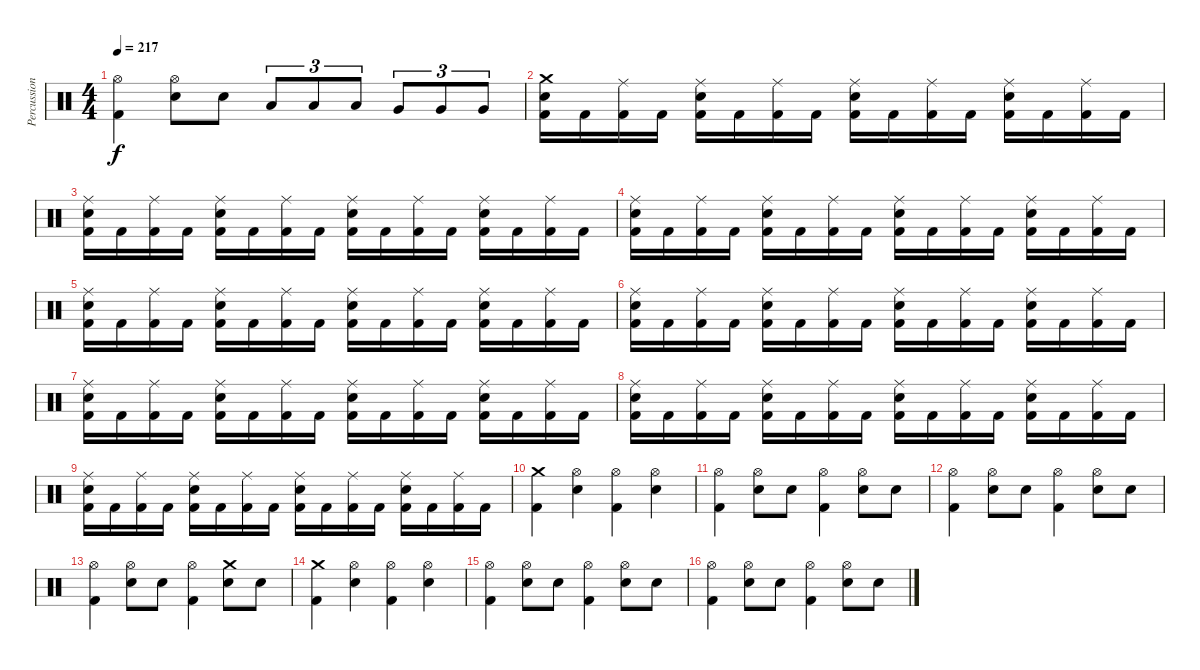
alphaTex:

\track ("Percussions" "Percussion") {instrument percussion}
\staff {score}
\articulation defaults
\ts (4 4)
\tempo 217
\clef neutral
\ks c
("Hi-Hat (open)" "Kick (hit) 2").4{dy f} ("Hi-Hat (open)" "Electric Snare (hit)").8 "Electric Snare (hit)".8 "Low Tom (hit)".8{tu (3 2)} "Low Tom (hit)".8{tu (3 2)} "Low Tom (hit)".8{tu (3 2)} "Very Low Tom (hit)".8{tu (3 2)} "Very Low Tom (hit)".8{tu (3 2)} "Very Low Tom (hit)".8{tu (3 2)} |
("Crash medium (hit)" "Electric Snare (hit)" "Kick (hit) 2").16 "Kick (hit) 2".16 ("Ride (middle)" "Kick (hit) 2").16 "Kick (hit) 2".16 ("Ride (middle)" "Electric Snare (hit)" "Kick (hit) 2").16 "Kick (hit) 2".16 ("Ride (middle)" "Kick (hit) 2").16 "Kick (hit) 2".16 ("Ride (middle)" "Electric Snare (hit)" "Kick (hit) 2").16 "Kick (hit) 2".16 ("Ride (middle)" "Kick (hit) 2").16 "Kick (hit) 2".16 ("Ride (middle)" "Electric Snare (hit)" "Kick (hit) 2").16 "Kick (hit) 2".16 ("Ride (middle)" "Kick (hit) 2").16 "Kick (hit) 2".16 |
("Ride (middle)" "Electric Snare (hit)" "Kick (hit) 2").16 "Kick (hit) 2".16 ("Ride (middle)" "Kick (hit) 2").16 "Kick (hit) 2".16 ("Ride (middle)" "Electric Snare (hit)" "Kick (hit) 2").16 "Kick (hit) 2".16 ("Ride (middle)" "Kick (hit) 2").16 "Kick (hit) 2".16 ("Ride (middle)" "Electric Snare (hit)" "Kick (hit) 2").16 "Kick (hit) 2".16 ("Ride (middle)" "Kick (hit) 2").16 "Kick (hit) 2".16 ("Ride (middle)" "Electric Snare (hit)" "Kick (hit) 2").16 "Kick (hit) 2".16 ("Ride (middle)" "Kick (hit) 2").16 "Kick (hit) 2".16 |
("Ride (middle)" "Electric Snare (hit)" "Kick (hit) 2").16 "Kick (hit) 2".16 ("Ride (middle)" "Kick (hit) 2").16 "Kick (hit) 2".16 ("Ride (middle)" "Electric Snare (hit)" "Kick (hit) 2").16 "Kick (hit) 2".16 ("Ride (middle)" "Kick (hit) 2").16 "Kick (hit) 2".16 ("Ride (middle)" "Electric Snare (hit)" "Kick (hit) 2").16 "Kick (hit) 2".16 ("Ride (middle)" "Kick (hit) 2").16 "Kick (hit) 2".16 ("Ride (middle)" "Electric Snare (hit)" "Kick (hit) 2").16 "Kick (hit) 2".16 ("Ride (middle)" "Kick (hit) 2").16 "Kick (hit) 2".16 |
("Ride (middle)" "Electric Snare (hit)" "Kick (hit) 2").16 "Kick (hit) 2".16 ("Ride (middle)" "Kick (hit) 2").16 "Kick (hit) 2".16 ("Ride (middle)" "Electric Snare (hit)" "Kick (hit) 2").16 "Kick (hit) 2".16 ("Ride (middle)" "Kick (hit) 2").16 "Kick (hit) 2".16 ("Ride (middle)" "Electric Snare (hit)" "Kick (hit) 2").16 "Kick (hit) 2".16 ("Ride (middle)" "Kick (hit) 2").16 "Kick (hit) 2".16 ("Ride (middle)" "Electric Snare (hit)" "Kick (hit) 2").16 "Kick (hit) 2".16 ("Ride (middle)" "Kick (hit) 2").16 "Kick (hit) 2".16 |
("Ride (middle)" "Electric Snare (hit)" "Kick (hit) 2").16 "Kick (hit) 2".16 ("Ride (middle)" "Kick (hit) 2").16 "Kick (hit) 2".16 ("Ride (middle)" "Electric Snare (hit)" "Kick (hit) 2").16 "Kick (hit) 2".16 ("Ride (middle)" "Kick (hit) 2").16 "Kick (hit) 2".16 ("Ride (middle)" "Electric Snare (hit)" "Kick (hit) 2").16 "Kick (hit) 2".16 ("Ride (middle)" "Kick (hit) 2").16 "Kick (hit) 2".16 ("Ride (middle)" "Electric Snare (hit)" "Kick (hit) 2").16 "Kick (hit) 2".16 ("Ride (middle)" "Kick (hit) 2").16 "Kick (hit) 2".16 |
("Ride (middle)" "Electric Snare (hit)" "Kick (hit) 2").16 "Kick (hit) 2".16 ("Ride (middle)" "Kick (hit) 2").16 "Kick (hit) 2".16 ("Ride (middle)" "Electric Snare (hit)" "Kick (hit) 2").16 "Kick (hit) 2".16 ("Ride (middle)" "Kick (hit) 2").16 "Kick (hit) 2".16 ("Ride (middle)" "Electric Snare (hit)" "Kick (hit) 2").16 "Kick (hit) 2".16 ("Ride (middle)" "Kick (hit) 2").16 "Kick (hit) 2".16 ("Ride (middle)" "Electric Snare (hit)" "Kick (hit) 2").16 "Kick (hit) 2".16 ("Ride (middle)" "Kick (hit) 2").16 "Kick (hit) 2".16 |
("Ride (middle)" "Electric Snare (hit)" "Kick (hit) 2").16 "Kick (hit) 2".16 ("Ride (middle)" "Kick (hit) 2").16 "Kick (hit) 2".16 ("Ride (middle)" "Electric Snare (hit)" "Kick (hit) 2").16 "Kick (hit) 2".16 ("Ride (middle)" "Kick (hit) 2").16 "Kick (hit) 2".16 ("Ride (middle)" "Electric Snare (hit)" "Kick (hit) 2").16 "Kick (hit) 2".16 ("Ride (middle)" "Kick (hit) 2").16 "Kick (hit) 2".16 ("Ride (middle)" "Electric Snare (hit)" "Kick (hit) 2").16 "Kick (hit) 2".16 ("Ride (middle)" "Kick (hit) 2").16 "Kick (hit) 2".16 |
("Ride (middle)" "Electric Snare (hit)" "Kick (hit) 2").16 "Kick (hit) 2".16 ("Ride (middle)" "Kick (hit) 2").16 "Kick (hit) 2".16 ("Ride (middle)" "Electric Snare (hit)" "Kick (hit) 2").16 "Kick (hit) 2".16 ("Ride (middle)" "Kick (hit) 2").16 "Kick (hit) 2".16 ("Ride (middle)" "Electric Snare (hit)" "Kick (hit) 2").16 "Kick (hit) 2".16 ("Ride (middle)" "Kick (hit) 2").16 "Kick (hit) 2".16 ("Ride (middle)" "Electric Snare (hit)" "Kick (hit) 2").16 "Kick (hit) 2".16 ("Ride (middle)" "Kick (hit) 2").16 "Kick (hit) 2".16 |
("Crash medium (hit)" "Kick (hit) 2").4 ("Hi-Hat (open)" "Electric Snare (hit)").4 ("Hi-Hat (open)" "Kick (hit) 2").4 ("Hi-Hat (open)" "Electric Snare (hit)").4 |
("Hi-Hat (open)" "Kick (hit) 2").4 ("Hi-Hat (open)" "Electric Snare (hit)").8 "Electric Snare (hit)".8 ("Hi-Hat (open)" "Kick (hit) 2").4 ("Hi-Hat (open)" "Electric Snare (hit)").8 "Electric Snare (hit)".8 |
("Hi-Hat (open)" "Kick (hit) 2").4 ("Hi-Hat (open)" "Electric Snare (hit)").8 "Electric Snare (hit)".8 ("Hi-Hat (open)" "Kick (hit) 2").4 ("Hi-Hat (open)" "Electric Snare (hit)").8 "Electric Snare (hit)".8 |
("Hi-Hat (open)" "Kick (hit) 2").4 ("Hi-Hat (open)" "Electric Snare (hit)").8 "Electric Snare (hit)".8 ("Hi-Hat (open)" "Kick (hit) 2").4 ("Crash medium (hit)" "Electric Snare (hit)").8 "Electric Snare (hit)".8 |
("Crash medium (hit)" "Kick (hit) 2").4 ("Hi-Hat (open)" "Electric Snare (hit)").4 ("Hi-Hat (open)" "Kick (hit) 2").4 ("Hi-Hat (open)" "Electric Snare (hit)").4 |
("Hi-Hat (open)" "Kick (hit) 2").4 ("Hi-Hat (open)" "Electric Snare (hit)").8 "Electric Snare (hit)".8 ("Hi-Hat (open)" "Kick (hit) 2").4 ("Hi-Hat (open)" "Electric Snare (hit)").8 "Electric Snare (hit)".8 |
("Hi-Hat (open)" "Kick (hit) 2").4 ("Hi-Hat (open)" "Electric Snare (hit)").8 "Electric Snare (hit)".8 ("Hi-Hat (open)" "Kick (hit) 2").4 ("Hi-Hat (open)" "Electric Snare (hit)").8 "Electric Snare (hit)".8
